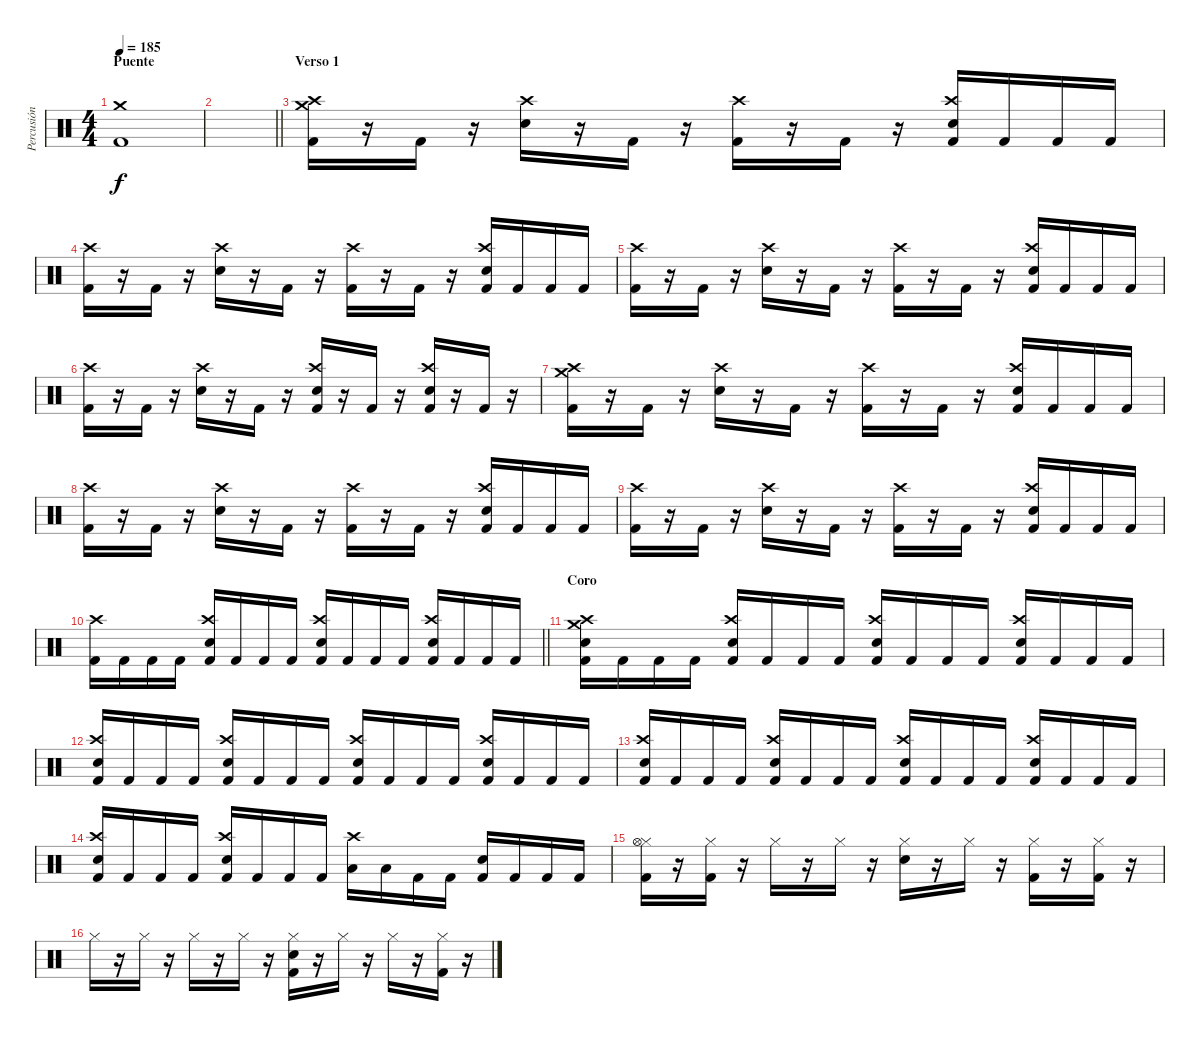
\track ("Percusión" "Percusión") {instrument percussion}
\staff {score}
\articulation defaults
\ts (4 4)
\section ("" "Puente")
\tempo 185
\clef neutral
\ks c
("Crash medium (hit)" "Kick (hit) 2").1{dy f} |
\barLineRight lightlight
|
\section ("" "Verso 1")
("Crash high (hit)" "Crash medium (hit)" "Kick (hit) 2").16 r.16 "Kick (hit) 2".16 r.16 ("Crash high (hit)" "Electric Snare (hit)").16 r.16 "Kick (hit) 2".16 r.16 ("Crash high (hit)" "Kick (hit) 2").16 r.16 "Kick (hit) 2".16 r.16 ("Crash high (hit)" "Electric Snare (hit)" "Kick (hit) 2").16 "Kick (hit) 2".16 "Kick (hit) 2".16 "Kick (hit) 2".16 |
("Crash high (hit)" "Kick (hit) 2").16 r.16 "Kick (hit) 2".16 r.16 ("Crash high (hit)" "Electric Snare (hit)").16 r.16 "Kick (hit) 2".16 r.16 ("Crash high (hit)" "Kick (hit) 2").16 r.16 "Kick (hit) 2".16 r.16 ("Crash high (hit)" "Electric Snare (hit)" "Kick (hit) 2").16 "Kick (hit) 2".16 "Kick (hit) 2".16 "Kick (hit) 2".16 |
("Crash high (hit)" "Kick (hit) 2").16 r.16 "Kick (hit) 2".16 r.16 ("Crash high (hit)" "Electric Snare (hit)").16 r.16 "Kick (hit) 2".16 r.16 ("Crash high (hit)" "Kick (hit) 2").16 r.16 "Kick (hit) 2".16 r.16 ("Crash high (hit)" "Electric Snare (hit)" "Kick (hit) 2").16 "Kick (hit) 2".16 "Kick (hit) 2".16 "Kick (hit) 2".16 |
("Crash high (hit)" "Kick (hit) 2").16 r.16 "Kick (hit) 2".16 r.16 ("Crash high (hit)" "Electric Snare (hit)").16 r.16 "Kick (hit) 2".16 r.16 ("Crash high (hit)" "Electric Snare (hit)" "Kick (hit) 2").16 r.16 "Kick (hit) 2".16 r.16 ("Crash high (hit)" "Electric Snare (hit)" "Kick (hit) 2").16 r.16 "Kick (hit) 2".16 r.16 |
("Crash high (hit)" "Crash medium (hit)" "Kick (hit) 2").16 r.16 "Kick (hit) 2".16 r.16 ("Crash high (hit)" "Electric Snare (hit)").16 r.16 "Kick (hit) 2".16 r.16 ("Crash high (hit)" "Kick (hit) 2").16 r.16 "Kick (hit) 2".16 r.16 ("Crash high (hit)" "Electric Snare (hit)" "Kick (hit) 2").16 "Kick (hit) 2".16 "Kick (hit) 2".16 "Kick (hit) 2".16 |
("Crash high (hit)" "Kick (hit) 2").16 r.16 "Kick (hit) 2".16 r.16 ("Crash high (hit)" "Electric Snare (hit)").16 r.16 "Kick (hit) 2".16 r.16 ("Crash high (hit)" "Kick (hit) 2").16 r.16 "Kick (hit) 2".16 r.16 ("Crash high (hit)" "Electric Snare (hit)" "Kick (hit) 2").16 "Kick (hit) 2".16 "Kick (hit) 2".16 "Kick (hit) 2".16 |
("Crash high (hit)" "Kick (hit) 2").16 r.16 "Kick (hit) 2".16 r.16 ("Crash high (hit)" "Electric Snare (hit)").16 r.16 "Kick (hit) 2".16 r.16 ("Crash high (hit)" "Kick (hit) 2").16 r.16 "Kick (hit) 2".16 r.16 ("Crash high (hit)" "Electric Snare (hit)" "Kick (hit) 2").16 "Kick (hit) 2".16 "Kick (hit) 2".16 "Kick (hit) 2".16 |
\barLineRight lightlight
("Crash high (hit)" "Kick (hit) 2").16 "Kick (hit) 2".16 "Kick (hit) 2".16 "Kick (hit) 2".16 ("Crash high (hit)" "Electric Snare (hit)" "Kick (hit) 2").16 "Kick (hit) 2".16 "Kick (hit) 2".16 "Kick (hit) 2".16 ("Crash high (hit)" "Electric Snare (hit)" "Kick (hit) 2").16 "Kick (hit) 2".16 "Kick (hit) 2".16 "Kick (hit) 2".16 ("Crash high (hit)" "Electric Snare (hit)" "Kick (hit) 2").16 "Kick (hit) 2".16 "Kick (hit) 2".16 "Kick (hit) 2".16 |
\section ("" "Coro")
("Crash high (hit)" "Crash medium (hit)" "Electric Snare (hit)" "Kick (hit) 2").16 "Kick (hit) 2".16 "Kick (hit) 2".16 "Kick (hit) 2".16 ("Crash high (hit)" "Electric Snare (hit)" "Kick (hit) 2").16 "Kick (hit) 2".16 "Kick (hit) 2".16 "Kick (hit) 2".16 ("Crash high (hit)" "Electric Snare (hit)" "Kick (hit) 2").16 "Kick (hit) 2".16 "Kick (hit) 2".16 "Kick (hit) 2".16 ("Crash high (hit)" "Electric Snare (hit)" "Kick (hit) 2").16 "Kick (hit) 2".16 "Kick (hit) 2".16 "Kick (hit) 2".16 |
("Crash high (hit)" "Electric Snare (hit)" "Kick (hit) 2").16 "Kick (hit) 2".16 "Kick (hit) 2".16 "Kick (hit) 2".16 ("Crash high (hit)" "Electric Snare (hit)" "Kick (hit) 2").16 "Kick (hit) 2".16 "Kick (hit) 2".16 "Kick (hit) 2".16 ("Crash high (hit)" "Electric Snare (hit)" "Kick (hit) 2").16 "Kick (hit) 2".16 "Kick (hit) 2".16 "Kick (hit) 2".16 ("Crash high (hit)" "Electric Snare (hit)" "Kick (hit) 2").16 "Kick (hit) 2".16 "Kick (hit) 2".16 "Kick (hit) 2".16 |
("Crash high (hit)" "Electric Snare (hit)" "Kick (hit) 2").16 "Kick (hit) 2".16 "Kick (hit) 2".16 "Kick (hit) 2".16 ("Crash high (hit)" "Electric Snare (hit)" "Kick (hit) 2").16 "Kick (hit) 2".16 "Kick (hit) 2".16 "Kick (hit) 2".16 ("Crash high (hit)" "Electric Snare (hit)" "Kick (hit) 2").16 "Kick (hit) 2".16 "Kick (hit) 2".16 "Kick (hit) 2".16 ("Crash high (hit)" "Electric Snare (hit)" "Kick (hit) 2").16 "Kick (hit) 2".16 "Kick (hit) 2".16 "Kick (hit) 2".16 |
("Crash high (hit)" "Electric Snare (hit)" "Kick (hit) 2").16 "Kick (hit) 2".16 "Kick (hit) 2".16 "Kick (hit) 2".16 ("Crash high (hit)" "Electric Snare (hit)" "Kick (hit) 2").16 "Kick (hit) 2".16 "Kick (hit) 2".16 "Kick (hit) 2".16 ("Crash high (hit)" "Low Tom (hit)").16 "Low Tom (hit)".16 "Kick (hit) 2".16 "Kick (hit) 2".16 ("Electric Snare (hit)" "Kick (hit) 2").16 "Kick (hit) 2".16 "Kick (hit) 2".16 "Kick (hit) 2".16 |
("Hi-Hat (closed)" "Hi-Hat (open)" "Kick (hit) 2").16 r.16 ("Hi-Hat (closed)" "Kick (hit) 2").16 r.16 "Hi-Hat (closed)".16 r.16 "Hi-Hat (closed)".16 r.16 ("Hi-Hat (closed)" "Electric Snare (hit)").16 r.16 "Hi-Hat (closed)".16 r.16 ("Hi-Hat (closed)" "Kick (hit) 2").16 r.16 ("Hi-Hat (closed)" "Kick (hit) 2").16 r.16 |
"Hi-Hat (closed)".16 r.16 "Hi-Hat (closed)".16 r.16 "Hi-Hat (closed)".16 r.16 "Hi-Hat (closed)".16 r.16 ("Hi-Hat (closed)" "Electric Snare (hit)" "Kick (hit) 2").16 r.16 "Hi-Hat (closed)".16 r.16 "Hi-Hat (closed)".16 r.16 ("Hi-Hat (closed)" "Kick (hit) 2").16 r.16
